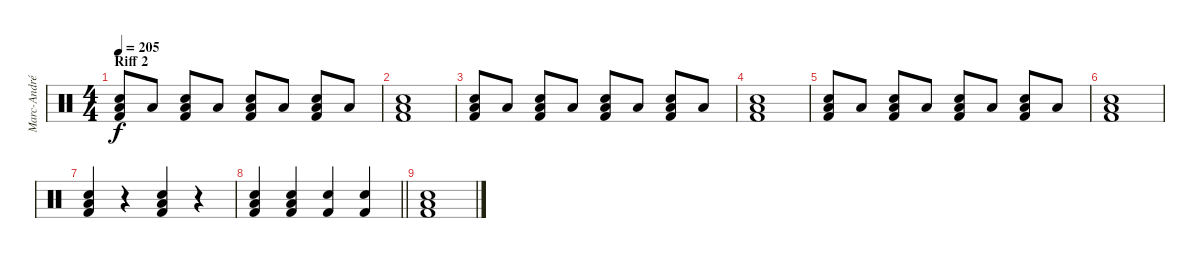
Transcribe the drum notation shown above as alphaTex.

\track ("Marc-André Barabé" "Marc-André") {instrument percussion}
\staff {score}
\articulation defaults
\ts (4 4)
\section ("" "Riff 2")
\tempo 205
\clef neutral
\ks c
("Electric Snare (hit)" "Low Floor Tom (hit)" "Kick (hit) 2").8{dy f} "Low Floor Tom (hit)".8 ("Electric Snare (hit)" "Low Floor Tom (hit)" "Kick (hit) 2"{tr (2 32)}).8 "Low Floor Tom (hit)".8 ("Electric Snare (hit)" "Low Floor Tom (hit)" "Kick (hit) 2").8 "Low Floor Tom (hit)".8 ("Electric Snare (hit)" "Low Floor Tom (hit)" "Kick (hit) 2"{tr (2 32)}).8 "Low Floor Tom (hit)".8 |
("Electric Snare (hit)" "Low Floor Tom (hit)" "Kick (hit) 2").1 |
("Electric Snare (hit)" "Low Floor Tom (hit)" "Kick (hit) 2").8 "Low Floor Tom (hit)".8 ("Electric Snare (hit)" "Low Floor Tom (hit)" "Kick (hit) 2"{tr (2 32)}).8 "Low Floor Tom (hit)".8 ("Electric Snare (hit)" "Low Floor Tom (hit)" "Kick (hit) 2").8 "Low Floor Tom (hit)".8 ("Electric Snare (hit)" "Low Floor Tom (hit)" "Kick (hit) 2"{tr (2 32)}).8 "Low Floor Tom (hit)".8 |
("Electric Snare (hit)" "Low Floor Tom (hit)" "Kick (hit) 2").1 |
("Electric Snare (hit)" "Low Floor Tom (hit)" "Kick (hit) 2").8 "Low Floor Tom (hit)".8 ("Electric Snare (hit)" "Low Floor Tom (hit)" "Kick (hit) 2"{tr (2 32)}).8 "Low Floor Tom (hit)".8 ("Electric Snare (hit)" "Low Floor Tom (hit)" "Kick (hit) 2").8 "Low Floor Tom (hit)".8 ("Electric Snare (hit)" "Low Floor Tom (hit)" "Kick (hit) 2"{tr (2 32)}).8 "Low Floor Tom (hit)".8 |
("Electric Snare (hit)" "Low Floor Tom (hit)" "Kick (hit) 2").1 |
("Electric Snare (hit)" "Low Floor Tom (hit)" "Kick (hit) 2").4 r.4 ("Electric Snare (hit)" "Low Floor Tom (hit)" "Kick (hit) 2").4 r.4 |
\barLineRight lightlight
("Electric Snare (hit)" "Low Floor Tom (hit)" "Kick (hit) 2").4 ("Electric Snare (hit)" "Low Floor Tom (hit)" "Kick (hit) 2").4 ("Electric Snare (hit)"{tr (4 32)} "Kick (hit) 2").4 ("Electric Snare (hit)"{tr (4 32)} "Kick (hit) 2").4 |
("Electric Snare (hit)" "Low Floor Tom (hit)" "Kick (hit) 2").1
